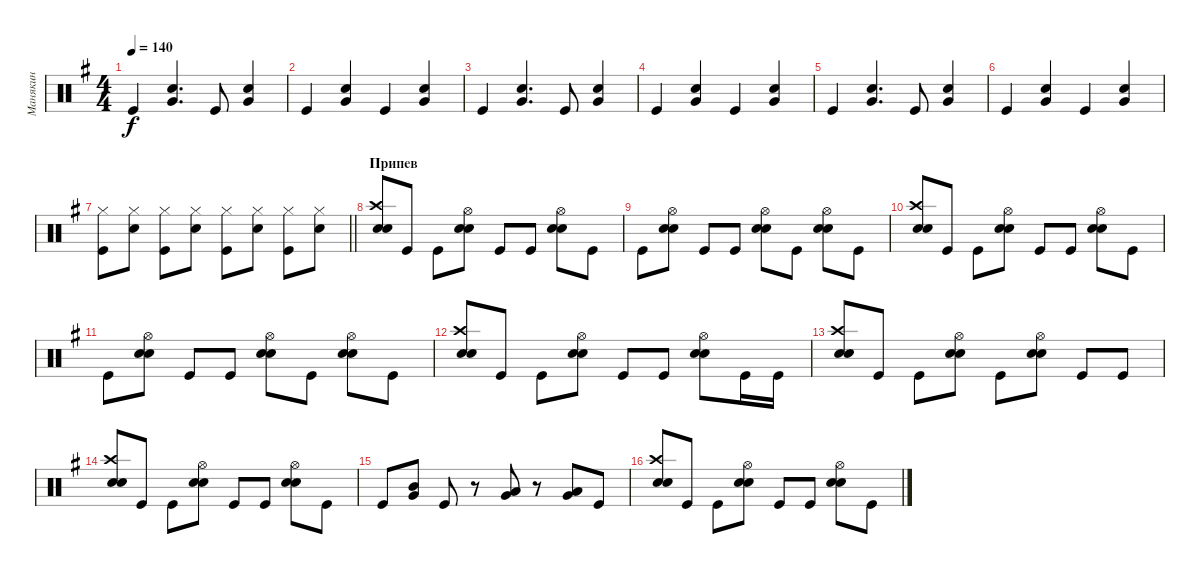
\track ("Манякин" "Манякин") {instrument percussion}
\staff {score}
\articulation defaults
\ts (4 4)
\tempo 140
\clef neutral
\ks g "Kick (hit)".4{dy f}
("Snare (hit) 2" "Very Low Tom (hit)").4{d} "Kick (hit)".8 ("Snare (hit) 2" "Very Low Tom (hit)").4 |
"Kick (hit)".4 ("Snare (hit) 2" "Very Low Tom (hit)").4 "Kick (hit)".4 ("Snare (hit) 2" "Very Low Tom (hit)").4 |
"Kick (hit)".4 ("Snare (hit) 2" "Very Low Tom (hit)").4{d} "Kick (hit)".8 ("Snare (hit) 2" "Very Low Tom (hit)").4 |
"Kick (hit)".4 ("Snare (hit) 2" "Very Low Tom (hit)").4 "Kick (hit)".4 ("Snare (hit) 2" "Very Low Tom (hit)").4 |
"Kick (hit)".4 ("Snare (hit) 2" "Very Low Tom (hit)").4{d} "Kick (hit)".8 ("Snare (hit) 2" "Very Low Tom (hit)").4 |
"Kick (hit)".4 ("Snare (hit) 2" "Very Low Tom (hit)").4 "Kick (hit)".4 ("Snare (hit) 2" "Very Low Tom (hit)").4 |
\barLineRight lightlight
("Hi-Hat (closed)" "Kick (hit)").8 ("Hi-Hat (closed)" "Snare (hit) 2").8 ("Hi-Hat (closed)" "Kick (hit)").8 ("Hi-Hat (closed)" "Snare (hit) 2").8 ("Hi-Hat (closed)" "Kick (hit)").8 ("Hi-Hat (closed)" "Snare (hit) 2").8 ("Hi-Hat (closed)" "Kick (hit)").8 ("Hi-Hat (closed)" "Snare (hit) 2").8 |
\section ("" "Припев")
("Crash high (hit)" "Electric Snare (hit)" "Snare (hit) 2").8 "Kick (hit)".8 "Kick (hit)".8 ("Hi-Hat (open)" "Electric Snare (hit)" "Snare (hit) 2").8 "Kick (hit)".8 "Kick (hit)".8 ("Hi-Hat (open)" "Electric Snare (hit)" "Snare (hit) 2").8 "Kick (hit)".8 |
"Kick (hit)".8 ("Hi-Hat (open)" "Electric Snare (hit)" "Snare (hit) 2").8 "Kick (hit)".8 "Kick (hit)".8 ("Hi-Hat (open)" "Electric Snare (hit)" "Snare (hit) 2").8 "Kick (hit)".8 ("Hi-Hat (open)" "Electric Snare (hit)" "Snare (hit) 2").8 "Kick (hit)".8 |
("Crash high (hit)" "Electric Snare (hit)" "Snare (hit) 2").8 "Kick (hit)".8 "Kick (hit)".8 ("Hi-Hat (open)" "Electric Snare (hit)" "Snare (hit) 2").8 "Kick (hit)".8 "Kick (hit)".8 ("Hi-Hat (open)" "Electric Snare (hit)" "Snare (hit) 2").8 "Kick (hit)".8 |
"Kick (hit)".8 ("Hi-Hat (open)" "Electric Snare (hit)" "Snare (hit) 2").8 "Kick (hit)".8 "Kick (hit)".8 ("Hi-Hat (open)" "Electric Snare (hit)" "Snare (hit) 2").8 "Kick (hit)".8 ("Hi-Hat (open)" "Electric Snare (hit)" "Snare (hit) 2").8 "Kick (hit)".8 |
("Crash high (hit)" "Electric Snare (hit)" "Snare (hit) 2").8 "Kick (hit)".8 "Kick (hit)".8 ("Hi-Hat (open)" "Electric Snare (hit)" "Snare (hit) 2").8 "Kick (hit)".8 "Kick (hit)".8 ("Hi-Hat (open)" "Electric Snare (hit)" "Snare (hit) 2").8 "Kick (hit)".16 "Kick (hit)".16 |
("Crash high (hit)" "Electric Snare (hit)" "Snare (hit) 2").8 "Kick (hit)".8 "Kick (hit)".8 ("Hi-Hat (open)" "Electric Snare (hit)" "Snare (hit) 2").8 "Kick (hit)".8 ("Hi-Hat (open)" "Electric Snare (hit)" "Snare (hit) 2").8 "Kick (hit)".8 "Kick (hit)".8 |
("Crash high (hit)" "Electric Snare (hit)" "Snare (hit) 2").8 "Kick (hit)".8 "Kick (hit)".8 ("Hi-Hat (open)" "Electric Snare (hit)" "Snare (hit) 2").8 "Kick (hit)".8 "Kick (hit)".8 ("Hi-Hat (open)" "Electric Snare (hit)" "Snare (hit) 2").8 "Kick (hit)".8 |
"Kick (hit)".8 ("Very Low Tom (hit)" "Mid Tom (hit)").8 "Kick (hit)".8 r.8 ("Low Tom (hit)" "Very Low Tom (hit)").8 r.8 ("Very Low Tom (hit)" "Low Floor Tom (hit)").8 "Kick (hit)".8 |
("Crash high (hit)" "Electric Snare (hit)" "Snare (hit) 2").8 "Kick (hit)".8 "Kick (hit)".8 ("Hi-Hat (open)" "Electric Snare (hit)" "Snare (hit) 2").8 "Kick (hit)".8 "Kick (hit)".8 ("Hi-Hat (open)" "Electric Snare (hit)" "Snare (hit) 2").8 "Kick (hit)".8
